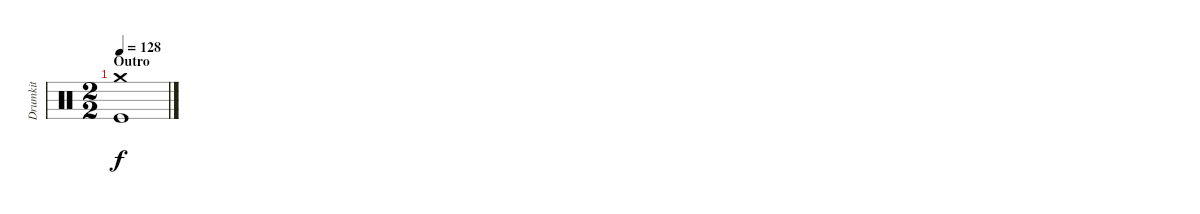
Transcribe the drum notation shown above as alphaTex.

\track ("Drumkit" "Drumkit") {instrument percussion}
\staff {score}
\articulation defaults
\ts (2 2)
\section ("" "Outro")
\tempo 128
\clef neutral
\ks c
("Kick (hit)" "Crash medium (hit)").1{dy f}
